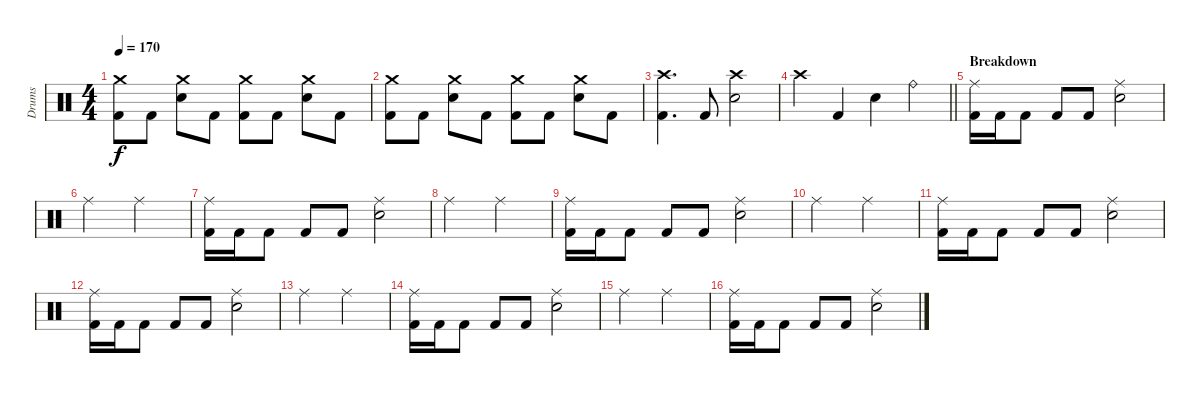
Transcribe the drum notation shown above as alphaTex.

\track ("Drums" "Drums") {instrument percussion}
\staff {score}
\articulation defaults
\ts (4 4)
\tempo 170
\clef neutral
\ks c
("Crash medium (hit)" "Kick (hit) 2").8{dy f} "Kick (hit) 2".8 ("Crash medium (hit)" "Electric Snare (hit)").8 "Kick (hit) 2".8 ("Crash medium (hit)" "Kick (hit) 2").8 "Kick (hit) 2".8 ("Crash medium (hit)" "Electric Snare (hit)").8 "Kick (hit) 2".8 |
("Crash medium (hit)" "Kick (hit) 2").8 "Kick (hit) 2".8 ("Crash medium (hit)" "Electric Snare (hit)").8 "Kick (hit) 2".8 ("Crash medium (hit)" "Kick (hit) 2").8 "Kick (hit) 2".8 ("Crash medium (hit)" "Electric Snare (hit)").8 "Kick (hit) 2".8 |
("Crash high (hit)" "Kick (hit) 2").4{d} "Kick (hit) 2".8 ("Crash high (hit)" "Electric Snare (hit)").2 |
\barLineRight lightlight "Crash high (hit)".4 "Kick (hit) 2".4 "Electric Snare (hit)".4 "Ride (bell)".4
|
\section ("" "Breakdown")
("Ride (middle)" "Kick (hit) 2").16 "Kick (hit) 2".16 "Kick (hit) 2".8 "Kick (hit) 2".8 "Kick (hit) 2".8 ("Ride (middle)" "Electric Snare (hit)").2 |
"Ride (middle)".2 "Ride (middle)".2 |
("Ride (middle)" "Kick (hit) 2").16 "Kick (hit) 2".16 "Kick (hit) 2".8 "Kick (hit) 2".8 "Kick (hit) 2".8 ("Ride (middle)" "Electric Snare (hit)").2 |
"Ride (middle)".2 "Ride (middle)".2 |
("Ride (middle)" "Kick (hit) 2").16 "Kick (hit) 2".16 "Kick (hit) 2".8 "Kick (hit) 2".8 "Kick (hit) 2".8 ("Ride (middle)" "Electric Snare (hit)").2 |
"Ride (middle)".2 "Ride (middle)".2 |
("Ride (middle)" "Kick (hit) 2").16 "Kick (hit) 2".16 "Kick (hit) 2".8 "Kick (hit) 2".8 "Kick (hit) 2".8 ("Ride (middle)" "Electric Snare (hit)").2 |
("Ride (middle)" "Kick (hit) 2").16 "Kick (hit) 2".16 "Kick (hit) 2".8 "Kick (hit) 2".8 "Kick (hit) 2".8 ("Ride (middle)" "Electric Snare (hit)").2 |
"Ride (middle)".2 "Ride (middle)".2 |
("Ride (middle)" "Kick (hit) 2").16 "Kick (hit) 2".16 "Kick (hit) 2".8 "Kick (hit) 2".8 "Kick (hit) 2".8 ("Ride (middle)" "Electric Snare (hit)").2 |
"Ride (middle)".2 "Ride (middle)".2 |
("Ride (middle)" "Kick (hit) 2").16 "Kick (hit) 2".16 "Kick (hit) 2".8 "Kick (hit) 2".8 "Kick (hit) 2".8 ("Ride (middle)" "Electric Snare (hit)").2
